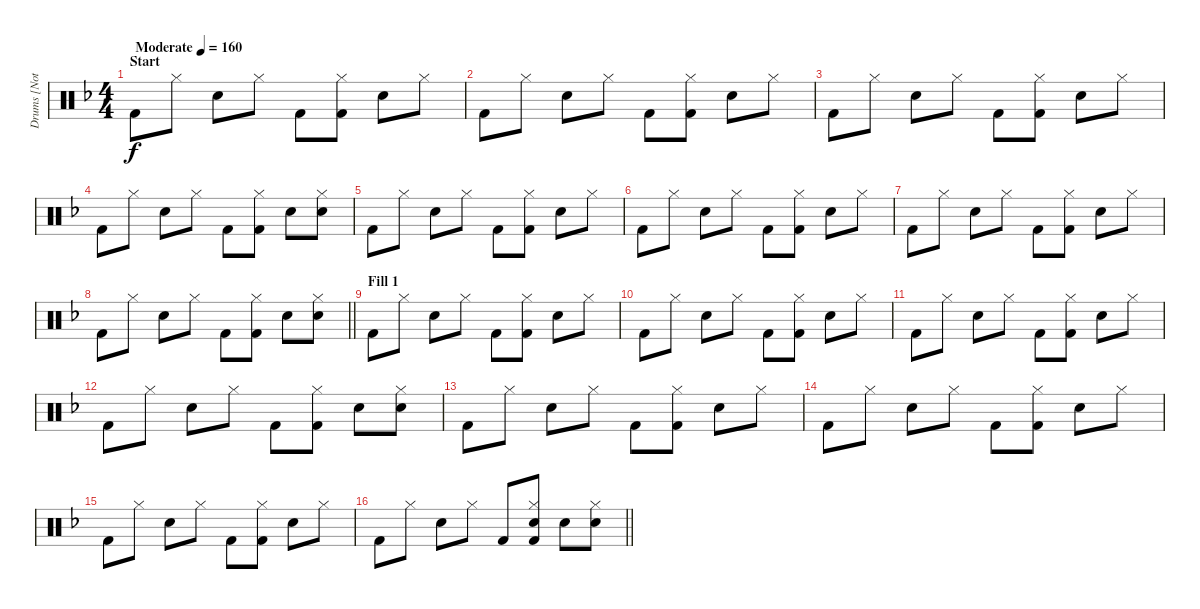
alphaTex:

\track ("Drums [Not Real]" "Drums [Not") {instrument percussion}
\staff {score}
\articulation defaults
\ts (4 4)
\section ("" "Start")
\tempo (160 "Moderate")
\clef neutral
\ks f "Kick (hit) 2".8{dy f} "Hi-Hat (closed)".8 "Snare (hit) 2".8 "Hi-Hat (closed)".8 "Kick (hit) 2".8
("Hi-Hat (closed)" "Kick (hit) 2").8 "Snare (hit) 2".8 "Hi-Hat (closed)".8 |
"Kick (hit) 2".8 "Hi-Hat (closed)".8 "Snare (hit) 2".8 "Hi-Hat (closed)".8 "Kick (hit) 2".8 ("Hi-Hat (closed)" "Kick (hit) 2").8 "Snare (hit) 2".8 "Hi-Hat (closed)".8 |
"Kick (hit) 2".8 "Hi-Hat (closed)".8 "Snare (hit) 2".8 "Hi-Hat (closed)".8 "Kick (hit) 2".8 ("Hi-Hat (closed)" "Kick (hit) 2").8 "Snare (hit) 2".8 "Hi-Hat (closed)".8 |
"Kick (hit) 2".8 "Hi-Hat (closed)".8 "Snare (hit) 2".8 "Hi-Hat (closed)".8 "Kick (hit) 2".8 ("Hi-Hat (closed)" "Kick (hit) 2").8 "Snare (hit) 2".8 ("Hi-Hat (closed)" "Snare (hit) 2").8 |
"Kick (hit) 2".8 "Hi-Hat (closed)".8 "Snare (hit) 2".8 "Hi-Hat (closed)".8 "Kick (hit) 2".8 ("Hi-Hat (closed)" "Kick (hit) 2").8 "Snare (hit) 2".8 "Hi-Hat (closed)".8 |
"Kick (hit) 2".8 "Hi-Hat (closed)".8 "Snare (hit) 2".8 "Hi-Hat (closed)".8 "Kick (hit) 2".8 ("Hi-Hat (closed)" "Kick (hit) 2").8 "Snare (hit) 2".8 "Hi-Hat (closed)".8 |
"Kick (hit) 2".8 "Hi-Hat (closed)".8 "Snare (hit) 2".8 "Hi-Hat (closed)".8 "Kick (hit) 2".8 ("Hi-Hat (closed)" "Kick (hit) 2").8 "Snare (hit) 2".8 "Hi-Hat (closed)".8 |
\barLineRight lightlight "Kick (hit) 2".8 "Hi-Hat (closed)".8 "Snare (hit) 2".8 "Hi-Hat (closed)".8 "Kick (hit) 2".8
("Hi-Hat (closed)" "Kick (hit) 2").8 "Snare (hit) 2".8 ("Hi-Hat (closed)" "Snare (hit) 2").8 |
\section ("" "Fill 1")
"Kick (hit) 2".8 "Hi-Hat (closed)".8 "Snare (hit) 2".8 "Hi-Hat (closed)".8 "Kick (hit) 2".8 ("Hi-Hat (closed)" "Kick (hit) 2").8 "Snare (hit) 2".8 "Hi-Hat (closed)".8 |
"Kick (hit) 2".8 "Hi-Hat (closed)".8 "Snare (hit) 2".8 "Hi-Hat (closed)".8 "Kick (hit) 2".8 ("Hi-Hat (closed)" "Kick (hit) 2").8 "Snare (hit) 2".8 "Hi-Hat (closed)".8 |
"Kick (hit) 2".8 "Hi-Hat (closed)".8 "Snare (hit) 2".8 "Hi-Hat (closed)".8 "Kick (hit) 2".8 ("Hi-Hat (closed)" "Kick (hit) 2").8 "Snare (hit) 2".8 "Hi-Hat (closed)".8 |
"Kick (hit) 2".8 "Hi-Hat (closed)".8 "Snare (hit) 2".8 "Hi-Hat (closed)".8 "Kick (hit) 2".8 ("Hi-Hat (closed)" "Kick (hit) 2").8 "Snare (hit) 2".8 ("Hi-Hat (closed)" "Snare (hit) 2").8 |
"Kick (hit) 2".8 "Hi-Hat (closed)".8 "Snare (hit) 2".8 "Hi-Hat (closed)".8 "Kick (hit) 2".8 ("Hi-Hat (closed)" "Kick (hit) 2").8 "Snare (hit) 2".8 "Hi-Hat (closed)".8 |
"Kick (hit) 2".8 "Hi-Hat (closed)".8 "Snare (hit) 2".8 "Hi-Hat (closed)".8 "Kick (hit) 2".8 ("Hi-Hat (closed)" "Kick (hit) 2").8 "Snare (hit) 2".8 "Hi-Hat (closed)".8 |
"Kick (hit) 2".8 "Hi-Hat (closed)".8 "Snare (hit) 2".8 "Hi-Hat (closed)".8 "Kick (hit) 2".8 ("Hi-Hat (closed)" "Kick (hit) 2").8 "Snare (hit) 2".8 "Hi-Hat (closed)".8 |
\barLineRight lightlight "Kick (hit) 2".8 "Hi-Hat (closed)".8 "Snare (hit) 2".8 "Hi-Hat (closed)".8 "Kick (hit) 2".8
("Hi-Hat (closed)" "Snare (hit) 2" "Kick (hit) 2").8 "Snare (hit) 2".8 ("Hi-Hat (closed)" "Snare (hit) 2").8
